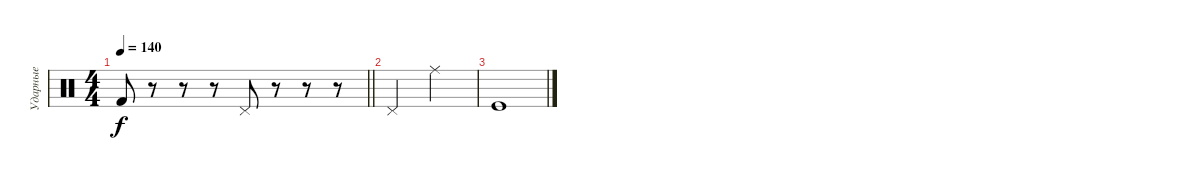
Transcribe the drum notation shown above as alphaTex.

\track ("Ударные" "Ударные") {instrument percussion}
\staff {score}
\articulation defaults
\ts (4 4)
\tempo 140
\clef neutral
\barLineRight lightlight
\ks c "Kick (hit) 2".8{dy f}
r.8 r.8 r.8 "Pedal Hi-Hat (hit)".8 r.8 r.8 r.8 |
"Pedal Hi-Hat (hit)".2 "Ride (middle)".2 |
"Kick (hit)".1
